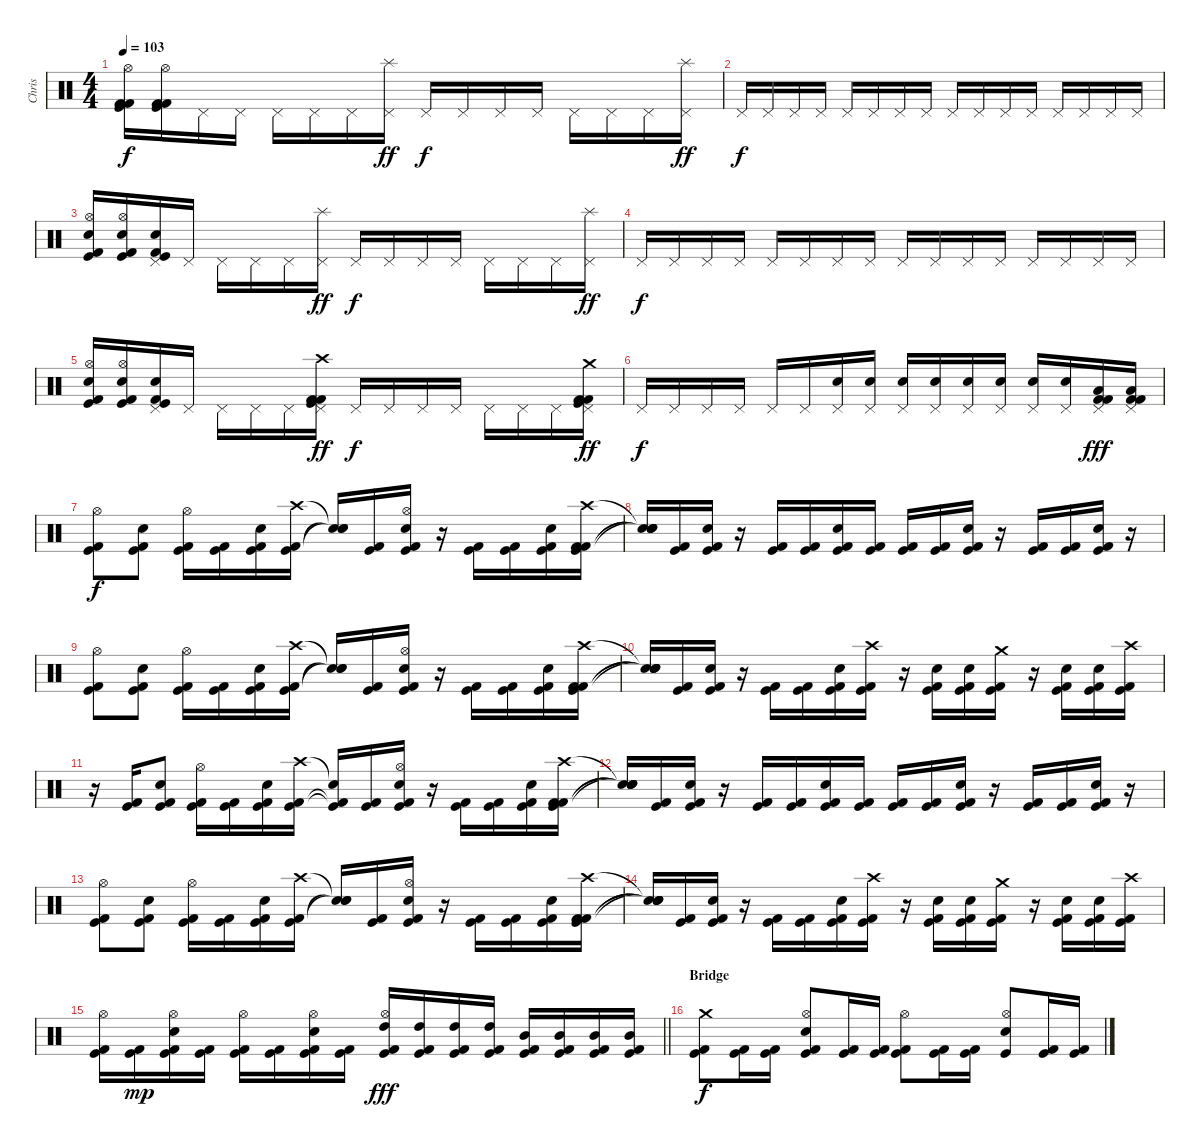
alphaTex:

\track ("Chris" "Chris") {instrument percussion}
\staff {score}
\articulation defaults
\ts (4 4)
\tempo 103
\clef neutral
\ks c
("Kick (hit)" "Kick (hit) 2" "Kick (hit) 2" "Hi-Hat (open)").16{dy f} ("Kick (hit)" "Kick (hit) 2" "Kick (hit) 2" "Hi-Hat (open)").16 "Pedal Hi-Hat (hit)".16 "Pedal Hi-Hat (hit)".16 "Pedal Hi-Hat (hit)".16 "Pedal Hi-Hat (hit)".16 "Pedal Hi-Hat (hit)".16 ("Pedal Hi-Hat (hit)" "Splash (hit)").16{dy ff} "Pedal Hi-Hat (hit)".16{dy f} "Pedal Hi-Hat (hit)".16 "Pedal Hi-Hat (hit)".16 "Pedal Hi-Hat (hit)".16 "Pedal Hi-Hat (hit)".16 "Pedal Hi-Hat (hit)".16 "Pedal Hi-Hat (hit)".16 ("Pedal Hi-Hat (hit)" "Splash (hit)").16{dy ff} |
"Pedal Hi-Hat (hit)".16{dy f} "Pedal Hi-Hat (hit)".16 "Pedal Hi-Hat (hit)".16 "Pedal Hi-Hat (hit)".16 "Pedal Hi-Hat (hit)".16 "Pedal Hi-Hat (hit)".16 "Pedal Hi-Hat (hit)".16 "Pedal Hi-Hat (hit)".16 "Pedal Hi-Hat (hit)".16 "Pedal Hi-Hat (hit)".16 "Pedal Hi-Hat (hit)".16 "Pedal Hi-Hat (hit)".16 "Pedal Hi-Hat (hit)".16 "Pedal Hi-Hat (hit)".16 "Pedal Hi-Hat (hit)".16 "Pedal Hi-Hat (hit)".16 |
("Kick (hit)" "Kick (hit) 2" "Electric Snare (hit)" "Hi-Hat (open)").16 ("Kick (hit)" "Kick (hit) 2" "Electric Snare (hit)" "Hi-Hat (open)").16 ("Kick (hit)" "Kick (hit) 2" "Electric Snare (hit)" "Pedal Hi-Hat (hit)").16 "Pedal Hi-Hat (hit)".16 "Pedal Hi-Hat (hit)".16 "Pedal Hi-Hat (hit)".16 "Pedal Hi-Hat (hit)".16 ("Pedal Hi-Hat (hit)" "Splash (hit)").16{dy ff} "Pedal Hi-Hat (hit)".16{dy f} "Pedal Hi-Hat (hit)".16 "Pedal Hi-Hat (hit)".16 "Pedal Hi-Hat (hit)".16 "Pedal Hi-Hat (hit)".16 "Pedal Hi-Hat (hit)".16 "Pedal Hi-Hat (hit)".16 ("Pedal Hi-Hat (hit)" "Splash (hit)").16{dy ff} |
"Pedal Hi-Hat (hit)".16{dy f} "Pedal Hi-Hat (hit)".16 "Pedal Hi-Hat (hit)".16 "Pedal Hi-Hat (hit)".16 "Pedal Hi-Hat (hit)".16 "Pedal Hi-Hat (hit)".16 "Pedal Hi-Hat (hit)".16 "Pedal Hi-Hat (hit)".16 "Pedal Hi-Hat (hit)".16 "Pedal Hi-Hat (hit)".16 "Pedal Hi-Hat (hit)".16 "Pedal Hi-Hat (hit)".16 "Pedal Hi-Hat (hit)".16 "Pedal Hi-Hat (hit)".16 "Pedal Hi-Hat (hit)".16 "Pedal Hi-Hat (hit)".16 |
("Kick (hit)" "Kick (hit) 2" "Electric Snare (hit)" "Hi-Hat (open)").16 ("Kick (hit)" "Kick (hit) 2" "Electric Snare (hit)" "Hi-Hat (open)").16 ("Kick (hit)" "Kick (hit) 2" "Electric Snare (hit)" "Pedal Hi-Hat (hit)").16 "Pedal Hi-Hat (hit)".16 "Pedal Hi-Hat (hit)".16 "Pedal Hi-Hat (hit)".16 "Pedal Hi-Hat (hit)".16 ("Kick (hit)" "Kick (hit) 2" "Kick (hit) 2" "Pedal Hi-Hat (hit)" "Crash high (hit)").16{dy ff} "Pedal Hi-Hat (hit)".16{dy f} "Pedal Hi-Hat (hit)".16 "Pedal Hi-Hat (hit)".16 "Pedal Hi-Hat (hit)".16 "Pedal Hi-Hat (hit)".16 "Pedal Hi-Hat (hit)".16 "Pedal Hi-Hat (hit)".16 ("Kick (hit)" "Kick (hit) 2" "Kick (hit) 2" "Pedal Hi-Hat (hit)" "Crash medium (hit)").16{dy ff} |
"Pedal Hi-Hat (hit)".16{dy f} "Pedal Hi-Hat (hit)".16 "Pedal Hi-Hat (hit)".16 "Pedal Hi-Hat (hit)".16 "Pedal Hi-Hat (hit)".16 "Pedal Hi-Hat (hit)".16 ("Pedal Hi-Hat (hit)" "Electric Snare (hit)").16 ("Pedal Hi-Hat (hit)" "Electric Snare (hit)").16 ("Pedal Hi-Hat (hit)" "Electric Snare (hit)").16 ("Pedal Hi-Hat (hit)" "Electric Snare (hit)").16 ("Pedal Hi-Hat (hit)" "Electric Snare (hit)").16 ("Pedal Hi-Hat (hit)" "Electric Snare (hit)").16 ("Pedal Hi-Hat (hit)" "Electric Snare (hit)").16 ("Pedal Hi-Hat (hit)" "Electric Snare (hit)").16 ("Kick (hit) 2" "Kick (hit) 2" "Pedal Hi-Hat (hit)" "Low Tom (hit)").16{dy fff} ("Kick (hit) 2" "Kick (hit) 2" "Pedal Hi-Hat (hit)" "Low Tom (hit)").16 |
("Kick (hit)" "Kick (hit) 2" "Hi-Hat (open)").8{dy f} ("Kick (hit)" "Kick (hit) 2" "Electric Snare (hit)").8 ("Kick (hit)" "Kick (hit) 2" "Hi-Hat (open)").16 ("Kick (hit)" "Kick (hit) 2").16 ("Kick (hit)" "Kick (hit) 2" "Electric Snare (hit)").16 ("Kick (hit)" "Kick (hit) 2" "Crash high (hit)").16 ("Snare (hit)"{t} "Snare (hit)"{t} "Snare (hit)"{t}).16 ("Kick (hit)" "Kick (hit) 2").16 ("Kick (hit)" "Kick (hit) 2" "Electric Snare (hit)" "Hi-Hat (open)").16 r.16 ("Kick (hit)" "Kick (hit) 2").16 ("Kick (hit)" "Kick (hit) 2").16 ("Kick (hit)" "Kick (hit) 2" "Electric Snare (hit)").16 ("Kick (hit)" "Kick (hit) 2" "Kick (hit) 2" "Crash high (hit)").16 |
("Snare (hit)"{t} "Snare (hit)"{t} "Snare (hit)"{t} "Snare (hit)"{t}).16 ("Kick (hit)" "Kick (hit) 2").16 ("Kick (hit)" "Kick (hit) 2" "Electric Snare (hit)").16 r.16 ("Kick (hit)" "Kick (hit) 2").16 ("Kick (hit)" "Kick (hit) 2").16 ("Kick (hit)" "Kick (hit) 2" "Electric Snare (hit)").16 ("Kick (hit)" "Kick (hit) 2").16 ("Kick (hit)" "Kick (hit) 2").16 ("Kick (hit)" "Kick (hit) 2").16 ("Kick (hit)" "Kick (hit) 2" "Electric Snare (hit)").16 r.16 ("Kick (hit)" "Kick (hit) 2").16 ("Kick (hit)" "Kick (hit) 2").16 ("Kick (hit)" "Kick (hit) 2" "Electric Snare (hit)").16 r.16 |
("Kick (hit)" "Kick (hit) 2" "Hi-Hat (open)").8 ("Kick (hit)" "Kick (hit) 2" "Electric Snare (hit)").8 ("Kick (hit)" "Kick (hit) 2" "Hi-Hat (open)").16 ("Kick (hit)" "Kick (hit) 2").16 ("Kick (hit)" "Kick (hit) 2" "Electric Snare (hit)").16 ("Kick (hit)" "Kick (hit) 2" "Crash high (hit)").16 ("Snare (hit)"{t} "Snare (hit)"{t} "Snare (hit)"{t}).16 ("Kick (hit)" "Kick (hit) 2").16 ("Kick (hit)" "Kick (hit) 2" "Electric Snare (hit)" "Hi-Hat (open)").16 r.16 ("Kick (hit)" "Kick (hit) 2").16 ("Kick (hit)" "Kick (hit) 2").16 ("Kick (hit)" "Kick (hit) 2" "Electric Snare (hit)").16 ("Kick (hit)" "Kick (hit) 2" "Kick (hit) 2" "Crash high (hit)").16 |
("Snare (hit)"{t} "Snare (hit)"{t} "Snare (hit)"{t} "Snare (hit)"{t}).16 ("Kick (hit)" "Kick (hit) 2").16 ("Kick (hit)" "Kick (hit) 2" "Electric Snare (hit)").16 r.16 ("Kick (hit)" "Kick (hit) 2").16 ("Kick (hit)" "Kick (hit) 2").16 ("Kick (hit)" "Kick (hit) 2" "Electric Snare (hit)").16 ("Kick (hit)" "Kick (hit) 2" "Crash high (hit)").16 r.16 ("Kick (hit)" "Kick (hit) 2" "Electric Snare (hit)").16 ("Kick (hit)" "Kick (hit) 2" "Electric Snare (hit)").16 ("Kick (hit)" "Kick (hit) 2" "Crash medium (hit)").16 r.16 ("Kick (hit)" "Kick (hit) 2" "Electric Snare (hit)").16 ("Kick (hit)" "Kick (hit) 2" "Electric Snare (hit)").16 ("Kick (hit)" "Kick (hit) 2" "Crash high (hit)").16 |
r.16 ("Kick (hit)" "Kick (hit) 2").16 ("Kick (hit)" "Kick (hit) 2" "Electric Snare (hit)").8 ("Kick (hit)" "Kick (hit) 2" "Hi-Hat (open)").16 ("Kick (hit)" "Kick (hit) 2").16 ("Kick (hit)" "Kick (hit) 2" "Electric Snare (hit)").16 ("Kick (hit)" "Kick (hit) 2" "Crash high (hit)").16 ("Kick (hit)"{t} "Kick (hit) 2"{t} "Snare (hit)"{t}).16 ("Kick (hit)" "Kick (hit) 2").16 ("Kick (hit)" "Kick (hit) 2" "Electric Snare (hit)" "Hi-Hat (open)").16 r.16 ("Kick (hit)" "Kick (hit) 2").16 ("Kick (hit)" "Kick (hit) 2").16 ("Kick (hit)" "Kick (hit) 2" "Electric Snare (hit)").16 ("Kick (hit)" "Kick (hit) 2" "Kick (hit) 2" "Crash high (hit)").16 |
("Snare (hit)"{t} "Snare (hit)"{t} "Snare (hit)"{t} "Snare (hit)"{t}).16 ("Kick (hit)" "Kick (hit) 2").16 ("Kick (hit)" "Kick (hit) 2" "Electric Snare (hit)").16 r.16 ("Kick (hit)" "Kick (hit) 2").16 ("Kick (hit)" "Kick (hit) 2").16 ("Kick (hit)" "Kick (hit) 2" "Electric Snare (hit)").16 ("Kick (hit)" "Kick (hit) 2").16 ("Kick (hit)" "Kick (hit) 2").16 ("Kick (hit)" "Kick (hit) 2").16 ("Kick (hit)" "Kick (hit) 2" "Electric Snare (hit)").16 r.16 ("Kick (hit)" "Kick (hit) 2").16 ("Kick (hit)" "Kick (hit) 2").16 ("Kick (hit)" "Kick (hit) 2" "Electric Snare (hit)").16 r.16 |
("Kick (hit)" "Kick (hit) 2" "Hi-Hat (open)").8 ("Kick (hit)" "Kick (hit) 2" "Electric Snare (hit)").8 ("Kick (hit)" "Kick (hit) 2" "Hi-Hat (open)").16 ("Kick (hit)" "Kick (hit) 2").16 ("Kick (hit)" "Kick (hit) 2" "Electric Snare (hit)").16 ("Kick (hit)" "Kick (hit) 2" "Crash high (hit)").16 ("Snare (hit)"{t} "Snare (hit)"{t} "Snare (hit)"{t}).16 ("Kick (hit)" "Kick (hit) 2").16 ("Kick (hit)" "Kick (hit) 2" "Electric Snare (hit)" "Hi-Hat (open)").16 r.16 ("Kick (hit)" "Kick (hit) 2").16 ("Kick (hit)" "Kick (hit) 2").16 ("Kick (hit)" "Kick (hit) 2" "Electric Snare (hit)").16 ("Kick (hit)" "Kick (hit) 2" "Kick (hit) 2" "Crash high (hit)").16 |
("Snare (hit)"{t} "Snare (hit)"{t} "Snare (hit)"{t} "Snare (hit)"{t}).16 ("Kick (hit)" "Kick (hit) 2").16 ("Kick (hit)" "Kick (hit) 2" "Electric Snare (hit)").16 r.16 ("Kick (hit)" "Kick (hit) 2").16 ("Kick (hit)" "Kick (hit) 2").16 ("Kick (hit)" "Kick (hit) 2" "Electric Snare (hit)").16 ("Kick (hit)" "Kick (hit) 2" "Crash high (hit)").16 r.16 ("Kick (hit)" "Kick (hit) 2" "Electric Snare (hit)").16 ("Kick (hit)" "Kick (hit) 2" "Electric Snare (hit)").16 ("Kick (hit)" "Kick (hit) 2" "Crash medium (hit)").16 r.16 ("Kick (hit)" "Kick (hit) 2" "Electric Snare (hit)").16 ("Kick (hit)" "Kick (hit) 2" "Electric Snare (hit)").16 ("Kick (hit)" "Kick (hit) 2" "Crash high (hit)").16 |
\barLineRight lightlight
("Kick (hit)" "Kick (hit) 2" "Hi-Hat (open)").16 ("Kick (hit)" "Kick (hit) 2").16{dy mp} ("Kick (hit)" "Kick (hit) 2" "Electric Snare (hit)" "Hi-Hat (open)").16 ("Kick (hit)" "Kick (hit) 2").16 ("Kick (hit)" "Kick (hit) 2" "Hi-Hat (open)").16 ("Kick (hit)" "Kick (hit) 2").16 ("Kick (hit)" "Kick (hit) 2" "Electric Snare (hit)" "Hi-Hat (open)").16 ("Kick (hit)" "Kick (hit) 2").16 ("Kick (hit)" "Kick (hit) 2" "High Tom (hit)" "Hi-Hat (open)").16{dy fff} ("Kick (hit)" "Kick (hit) 2" "High Tom (hit)").16 ("Kick (hit)" "Kick (hit) 2" "High Tom (hit)").16 ("Kick (hit)" "Kick (hit) 2" "High Tom (hit)").16 ("Kick (hit)" "Kick (hit) 2" "Mid Tom (hit)").16 ("Kick (hit)" "Kick (hit) 2" "Mid Tom (hit)").16 ("Kick (hit)" "Kick (hit) 2" "Mid Tom (hit)").16 ("Kick (hit)" "Kick (hit) 2" "Mid Tom (hit)").16 |
\section ("" "Bridge")
("Kick (hit)" "Kick (hit) 2" "Crash medium (hit)").8{dy f} ("Kick (hit)" "Kick (hit) 2").16 ("Kick (hit)" "Kick (hit) 2").16 ("Kick (hit)" "Kick (hit) 2" "Electric Snare (hit)" "Hi-Hat (open)").8 ("Kick (hit)" "Kick (hit) 2").16 ("Kick (hit)" "Kick (hit) 2").16 ("Kick (hit)" "Kick (hit) 2" "Hi-Hat (open)").8 ("Kick (hit)" "Kick (hit) 2").16 ("Kick (hit)" "Kick (hit) 2").16 ("Kick (hit)" "Electric Snare (hit)" "Hi-Hat (open)").8 ("Kick (hit)" "Kick (hit) 2").16 ("Kick (hit)" "Kick (hit) 2").16
